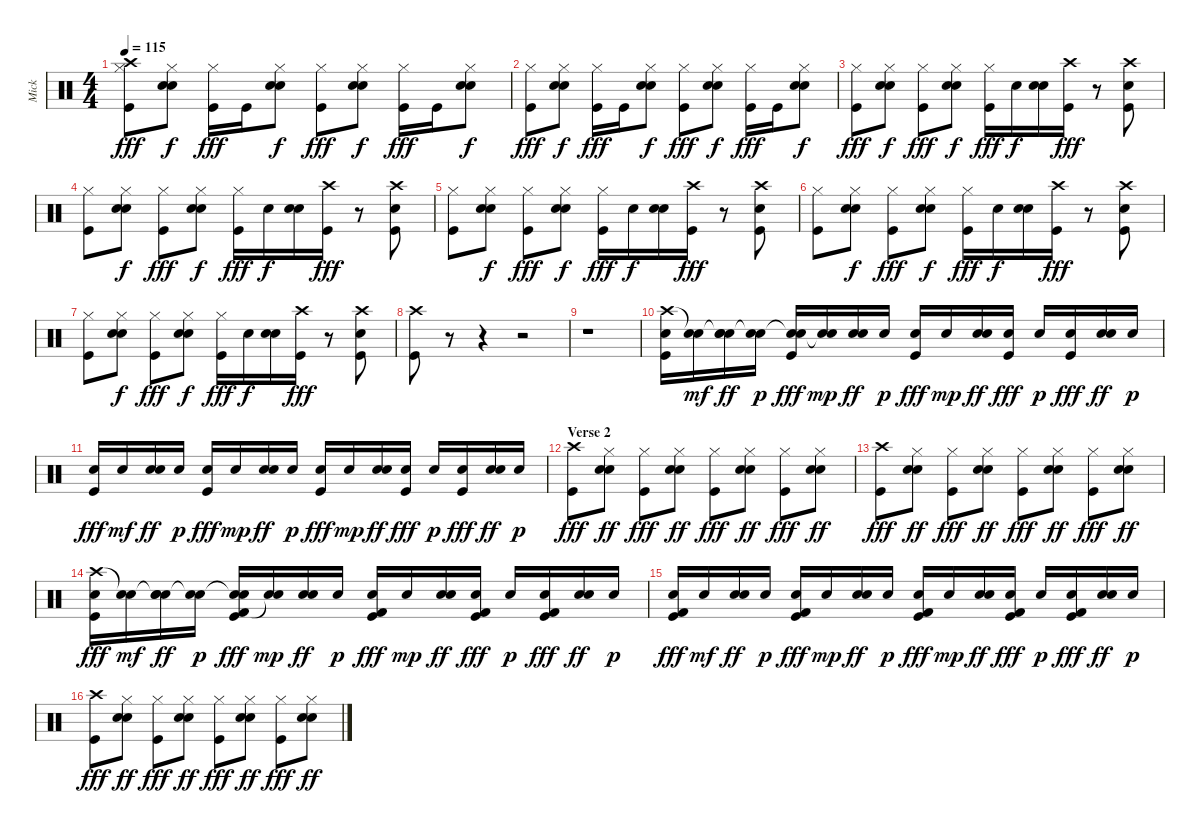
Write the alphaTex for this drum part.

\track ("Mick" "Mick") {instrument percussion}
\staff {score}
\articulation defaults
\ts (4 4)
\tempo 115
\clef neutral
\ks c
("Crash high (hit)" "Hi-Hat (closed)" "Kick (hit)").8{dy fff} ("Hand Clap (hit)" "Hi-Hat (closed)" "Electric Snare (hit)").8{dy f} ("Hi-Hat (closed)" "Kick (hit)").16{dy fff} "Kick (hit)".16 ("Hand Clap (hit)" "Hi-Hat (closed)" "Electric Snare (hit)").8{dy f} ("Hi-Hat (closed)" "Kick (hit)").8{dy fff} ("Hand Clap (hit)" "Hi-Hat (closed)" "Electric Snare (hit)").8{dy f} ("Hi-Hat (closed)" "Kick (hit)").16{dy fff} "Kick (hit)".16 ("Hand Clap (hit)" "Hi-Hat (closed)" "Electric Snare (hit)").8{dy f} |
("Hi-Hat (closed)" "Kick (hit)").8{dy fff} ("Hand Clap (hit)" "Hi-Hat (closed)" "Electric Snare (hit)").8{dy f} ("Hi-Hat (closed)" "Kick (hit)").16{dy fff} "Kick (hit)".16 ("Hand Clap (hit)" "Hi-Hat (closed)" "Electric Snare (hit)").8{dy f} ("Hi-Hat (closed)" "Kick (hit)").8{dy fff} ("Hand Clap (hit)" "Hi-Hat (closed)" "Electric Snare (hit)").8{dy f} ("Hi-Hat (closed)" "Kick (hit)").16{dy fff} "Kick (hit)".16 ("Hand Clap (hit)" "Hi-Hat (closed)" "Electric Snare (hit)").8{dy f} |
("Hi-Hat (closed)" "Kick (hit)").8{dy fff} ("Hand Clap (hit)" "Hi-Hat (closed)" "Electric Snare (hit)").8{dy f} ("Hi-Hat (closed)" "Kick (hit)").8{dy fff} ("Hand Clap (hit)" "Hi-Hat (closed)" "Electric Snare (hit)").8{dy f} ("Hi-Hat (closed)" "Kick (hit)").16{dy fff} "Electric Snare (hit)".16{dy f} ("Hand Clap (hit)" "Electric Snare (hit)").16 ("Crash high (hit)" "Kick (hit)").16{dy fff} r.8 ("Crash high (hit)" "Hand Clap (hit)" "Kick (hit)").8 |
("Hi-Hat (closed)" "Kick (hit)").8 ("Hand Clap (hit)" "Hi-Hat (closed)" "Electric Snare (hit)").8{dy f} ("Hi-Hat (closed)" "Kick (hit)").8{dy fff} ("Hand Clap (hit)" "Hi-Hat (closed)" "Electric Snare (hit)").8{dy f} ("Hi-Hat (closed)" "Kick (hit)").16{dy fff} "Electric Snare (hit)".16{dy f} ("Hand Clap (hit)" "Electric Snare (hit)").16 ("Crash high (hit)" "Kick (hit)").16{dy fff} r.8 ("Crash high (hit)" "Hand Clap (hit)" "Kick (hit)").8 |
("Hi-Hat (closed)" "Kick (hit)").8 ("Hand Clap (hit)" "Hi-Hat (closed)" "Electric Snare (hit)").8{dy f} ("Hi-Hat (closed)" "Kick (hit)").8{dy fff} ("Hand Clap (hit)" "Hi-Hat (closed)" "Electric Snare (hit)").8{dy f} ("Hi-Hat (closed)" "Kick (hit)").16{dy fff} "Electric Snare (hit)".16{dy f} ("Hand Clap (hit)" "Electric Snare (hit)").16 ("Crash high (hit)" "Kick (hit)").16{dy fff} r.8 ("Crash high (hit)" "Hand Clap (hit)" "Kick (hit)").8 |
("Hi-Hat (closed)" "Kick (hit)").8 ("Hand Clap (hit)" "Hi-Hat (closed)" "Electric Snare (hit)").8{dy f} ("Hi-Hat (closed)" "Kick (hit)").8{dy fff} ("Hand Clap (hit)" "Hi-Hat (closed)" "Electric Snare (hit)").8{dy f} ("Hi-Hat (closed)" "Kick (hit)").16{dy fff} "Electric Snare (hit)".16{dy f} ("Hand Clap (hit)" "Electric Snare (hit)").16 ("Crash high (hit)" "Kick (hit)").16{dy fff} r.8 ("Crash high (hit)" "Hand Clap (hit)" "Kick (hit)").8 |
("Hi-Hat (closed)" "Kick (hit)").8 ("Hand Clap (hit)" "Hi-Hat (closed)" "Electric Snare (hit)").8{dy f} ("Hi-Hat (closed)" "Kick (hit)").8{dy fff} ("Hand Clap (hit)" "Hi-Hat (closed)" "Electric Snare (hit)").8{dy f} ("Hi-Hat (closed)" "Kick (hit)").16{dy fff} "Electric Snare (hit)".16{dy f} ("Hand Clap (hit)" "Electric Snare (hit)").16 ("Crash high (hit)" "Kick (hit)").16{dy fff} r.8 ("Crash high (hit)" "Hand Clap (hit)" "Kick (hit)").8 |
("Crash high (hit)" "Kick (hit)").8 r.8 r.4 r.2 |
r.1 |
("Crash high (hit)" "Electric Snare (hit)" "Kick (hit)").16 ("Snare (hit)"{t} "Electric Snare (hit)").16{dy mf} ("Hand Clap (hit)" "Snare (hit)"{t} "Electric Snare (hit)").16{dy ff} ("Snare (hit)"{t} "Electric Snare (hit)").16{dy p} ("Snare (hit)"{t} "Electric Snare (hit)" "Kick (hit)").16{dy fff} ("Snare (hit)"{t} "Electric Snare (hit)").16{dy mp} ("Hand Clap (hit)" "Electric Snare (hit)").16{dy ff} "Electric Snare (hit)".16{dy p} ("Electric Snare (hit)" "Kick (hit)").16{dy fff} "Electric Snare (hit)".16{dy mp} ("Hand Clap (hit)" "Electric Snare (hit)").16{dy ff} ("Electric Snare (hit)" "Kick (hit)").16{dy fff} "Electric Snare (hit)".16{dy p} ("Electric Snare (hit)" "Kick (hit)").16{dy fff} ("Hand Clap (hit)" "Electric Snare (hit)").16{dy ff} "Electric Snare (hit)".16{dy p} |
("Electric Snare (hit)" "Kick (hit)").16{dy fff} "Electric Snare (hit)".16{dy mf} ("Hand Clap (hit)" "Electric Snare (hit)").16{dy ff} "Electric Snare (hit)".16{dy p} ("Electric Snare (hit)" "Kick (hit)").16{dy fff} "Electric Snare (hit)".16{dy mp} ("Hand Clap (hit)" "Electric Snare (hit)").16{dy ff} "Electric Snare (hit)".16{dy p} ("Electric Snare (hit)" "Kick (hit)").16{dy fff} "Electric Snare (hit)".16{dy mp} ("Hand Clap (hit)" "Electric Snare (hit)").16{dy ff} ("Electric Snare (hit)" "Kick (hit)").16{dy fff} "Electric Snare (hit)".16{dy p} ("Electric Snare (hit)" "Kick (hit)").16{dy fff} ("Hand Clap (hit)" "Electric Snare (hit)").16{dy ff} "Electric Snare (hit)".16{dy p} |
\section ("" "Verse 2")
("Crash high (hit)" "Kick (hit)").8{dy fff} ("Hand Clap (hit)" "Hi-Hat (closed)" "Electric Snare (hit)").8{dy ff} ("Hi-Hat (closed)" "Kick (hit)").8{dy fff} ("Hand Clap (hit)" "Hi-Hat (closed)" "Electric Snare (hit)").8{dy ff} ("Hi-Hat (closed)" "Kick (hit)").8{dy fff} ("Hand Clap (hit)" "Hi-Hat (closed)" "Electric Snare (hit)").8{dy ff} ("Hi-Hat (closed)" "Kick (hit)").8{dy fff} ("Hand Clap (hit)" "Hi-Hat (closed)" "Electric Snare (hit)").8{dy ff} |
("Crash high (hit)" "Kick (hit)").8{dy fff} ("Hand Clap (hit)" "Hi-Hat (closed)" "Electric Snare (hit)").8{dy ff} ("Hi-Hat (closed)" "Kick (hit)").8{dy fff} ("Hand Clap (hit)" "Hi-Hat (closed)" "Electric Snare (hit)").8{dy ff} ("Hi-Hat (closed)" "Kick (hit)").8{dy fff} ("Hand Clap (hit)" "Hi-Hat (closed)" "Electric Snare (hit)").8{dy ff} ("Hi-Hat (closed)" "Kick (hit)").8{dy fff} ("Hand Clap (hit)" "Hi-Hat (closed)" "Electric Snare (hit)").8{dy ff} |
("Crash high (hit)" "Electric Snare (hit)" "Kick (hit)").16{dy fff} ("Snare (hit)"{t} "Electric Snare (hit)").16{dy mf} ("Hand Clap (hit)" "Snare (hit)"{t} "Electric Snare (hit)").16{dy ff} ("Snare (hit)"{t} "Electric Snare (hit)").16{dy p} ("Kick (hit) 2" "Snare (hit)"{t} "Electric Snare (hit)" "Kick (hit)").16{dy fff} ("Snare (hit)"{t} "Electric Snare (hit)").16{dy mp} ("Hand Clap (hit)" "Electric Snare (hit)").16{dy ff} "Electric Snare (hit)".16{dy p} ("Kick (hit) 2" "Electric Snare (hit)" "Kick (hit)").16{dy fff} "Electric Snare (hit)".16{dy mp} ("Hand Clap (hit)" "Electric Snare (hit)").16{dy ff} ("Kick (hit) 2" "Electric Snare (hit)" "Kick (hit)").16{dy fff} "Electric Snare (hit)".16{dy p} ("Kick (hit) 2" "Electric Snare (hit)" "Kick (hit)").16{dy fff} ("Hand Clap (hit)" "Electric Snare (hit)").16{dy ff} "Electric Snare (hit)".16{dy p} |
("Kick (hit) 2" "Electric Snare (hit)" "Kick (hit)").16{dy fff} "Electric Snare (hit)".16{dy mf} ("Hand Clap (hit)" "Electric Snare (hit)").16{dy ff} "Electric Snare (hit)".16{dy p} ("Kick (hit) 2" "Electric Snare (hit)" "Kick (hit)").16{dy fff} "Electric Snare (hit)".16{dy mp} ("Hand Clap (hit)" "Electric Snare (hit)").16{dy ff} "Electric Snare (hit)".16{dy p} ("Kick (hit) 2" "Electric Snare (hit)" "Kick (hit)").16{dy fff} "Electric Snare (hit)".16{dy mp} ("Hand Clap (hit)" "Electric Snare (hit)").16{dy ff} ("Kick (hit) 2" "Electric Snare (hit)" "Kick (hit)").16{dy fff} "Electric Snare (hit)".16{dy p} ("Kick (hit) 2" "Electric Snare (hit)" "Kick (hit)").16{dy fff} ("Hand Clap (hit)" "Electric Snare (hit)").16{dy ff} "Electric Snare (hit)".16{dy p} |
("Crash high (hit)" "Kick (hit)").8{dy fff} ("Hand Clap (hit)" "Hi-Hat (closed)" "Electric Snare (hit)").8{dy ff} ("Hi-Hat (closed)" "Kick (hit)").8{dy fff} ("Hand Clap (hit)" "Hi-Hat (closed)" "Electric Snare (hit)").8{dy ff} ("Hi-Hat (closed)" "Kick (hit)").8{dy fff} ("Hand Clap (hit)" "Hi-Hat (closed)" "Electric Snare (hit)").8{dy ff} ("Hi-Hat (closed)" "Kick (hit)").8{dy fff} ("Hand Clap (hit)" "Hi-Hat (closed)" "Electric Snare (hit)").8{dy ff}
